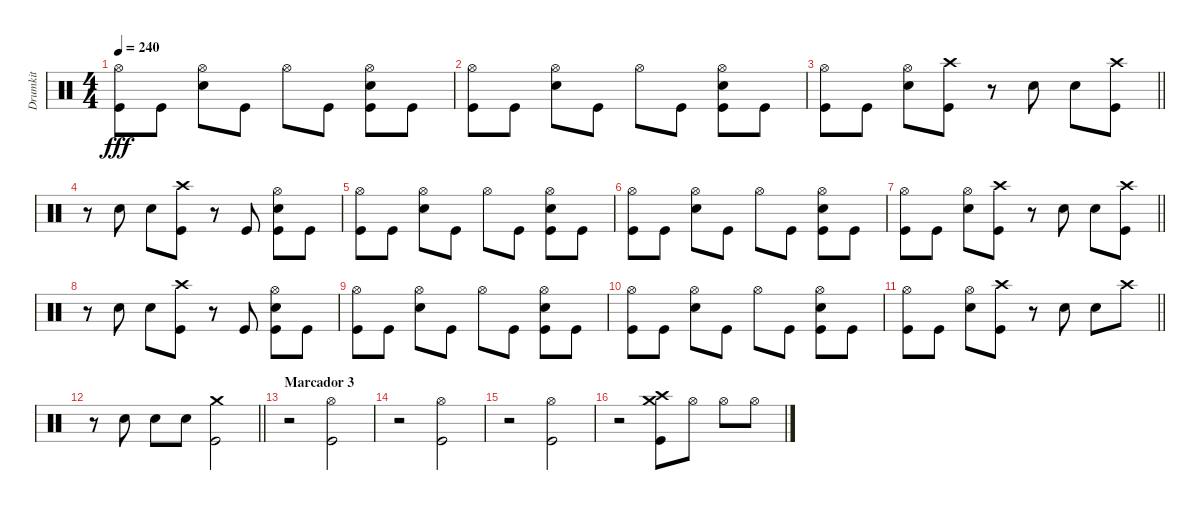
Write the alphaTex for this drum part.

\track ("Drumkit" "Drumkit") {instrument percussion}
\staff {score}
\articulation defaults
\ts (4 4)
\tempo 240
\clef neutral
\ks c
("Hi-Hat (open)" "Kick (hit)").8{dy fff} "Kick (hit)".8 ("Hi-Hat (open)" "Snare (hit) 2").8 "Kick (hit)".8 "Hi-Hat (open)".8 "Kick (hit)".8 ("Hi-Hat (open)" "Snare (hit) 2" "Kick (hit)").8 "Kick (hit)".8 |
("Hi-Hat (open)" "Kick (hit)").8 "Kick (hit)".8 ("Hi-Hat (open)" "Snare (hit) 2").8 "Kick (hit)".8 "Hi-Hat (open)".8 "Kick (hit)".8 ("Hi-Hat (open)" "Snare (hit) 2" "Kick (hit)").8 "Kick (hit)".8 |
\barLineRight lightlight
("Hi-Hat (open)" "Kick (hit)").8 "Kick (hit)".8 ("Hi-Hat (open)" "Snare (hit) 2").8 ("Crash high (hit)" "Kick (hit)").8 r.8 "Snare (hit) 2".8 "Snare (hit) 2".8 ("Crash high (hit)" "Kick (hit)").8 |
r.8 "Snare (hit) 2".8 "Snare (hit) 2".8 ("Crash high (hit)" "Kick (hit)").8 r.8 "Kick (hit)".8 ("Hi-Hat (open)" "Snare (hit) 2" "Kick (hit)").8 "Kick (hit)".8 |
("Hi-Hat (open)" "Kick (hit)").8 "Kick (hit)".8 ("Hi-Hat (open)" "Snare (hit) 2").8 "Kick (hit)".8 "Hi-Hat (open)".8 "Kick (hit)".8 ("Hi-Hat (open)" "Snare (hit) 2" "Kick (hit)").8 "Kick (hit)".8 |
("Hi-Hat (open)" "Kick (hit)").8 "Kick (hit)".8 ("Hi-Hat (open)" "Snare (hit) 2").8 "Kick (hit)".8 "Hi-Hat (open)".8 "Kick (hit)".8 ("Hi-Hat (open)" "Snare (hit) 2" "Kick (hit)").8 "Kick (hit)".8 |
\barLineRight lightlight
("Hi-Hat (open)" "Kick (hit)").8 "Kick (hit)".8 ("Hi-Hat (open)" "Snare (hit) 2").8 ("Crash high (hit)" "Kick (hit)").8 r.8 "Snare (hit) 2".8 "Snare (hit) 2".8 ("Crash high (hit)" "Kick (hit)").8 |
r.8 "Snare (hit) 2".8 "Snare (hit) 2".8 ("Crash high (hit)" "Kick (hit)").8 r.8 "Kick (hit)".8 ("Hi-Hat (open)" "Snare (hit) 2" "Kick (hit)").8 "Kick (hit)".8 |
("Hi-Hat (open)" "Kick (hit)").8 "Kick (hit)".8 ("Hi-Hat (open)" "Snare (hit) 2").8 "Kick (hit)".8 "Hi-Hat (open)".8 "Kick (hit)".8 ("Hi-Hat (open)" "Snare (hit) 2" "Kick (hit)").8 "Kick (hit)".8 |
("Hi-Hat (open)" "Kick (hit)").8 "Kick (hit)".8 ("Hi-Hat (open)" "Snare (hit) 2").8 "Kick (hit)".8 "Hi-Hat (open)".8 "Kick (hit)".8 ("Hi-Hat (open)" "Snare (hit) 2" "Kick (hit)").8 "Kick (hit)".8 |
\barLineRight lightlight
("Hi-Hat (open)" "Kick (hit)").8 "Kick (hit)".8 ("Hi-Hat (open)" "Snare (hit) 2").8 ("Crash high (hit)" "Kick (hit)").8 r.8 "Snare (hit) 2".8 "Snare (hit) 2".8 "Crash high (hit)".8 |
\barLineRight lightlight
r.8 "Snare (hit) 2".8 "Snare (hit) 2".8 "Snare (hit) 2".8 ("Crash medium (hit)" "Kick (hit)").2 |
\section ("" "Marcador 3")
r.2 ("Hi-Hat (open)" "Kick (hit)").2 |
r.2 ("Hi-Hat (open)" "Kick (hit)").2 |
r.2 ("Hi-Hat (open)" "Kick (hit)").2 |
r.2 ("Crash high (hit)" "Crash medium (hit)" "Kick (hit)").8 "Hi-Hat (open)".8 "Hi-Hat (open)".8 "Hi-Hat (open)".8
